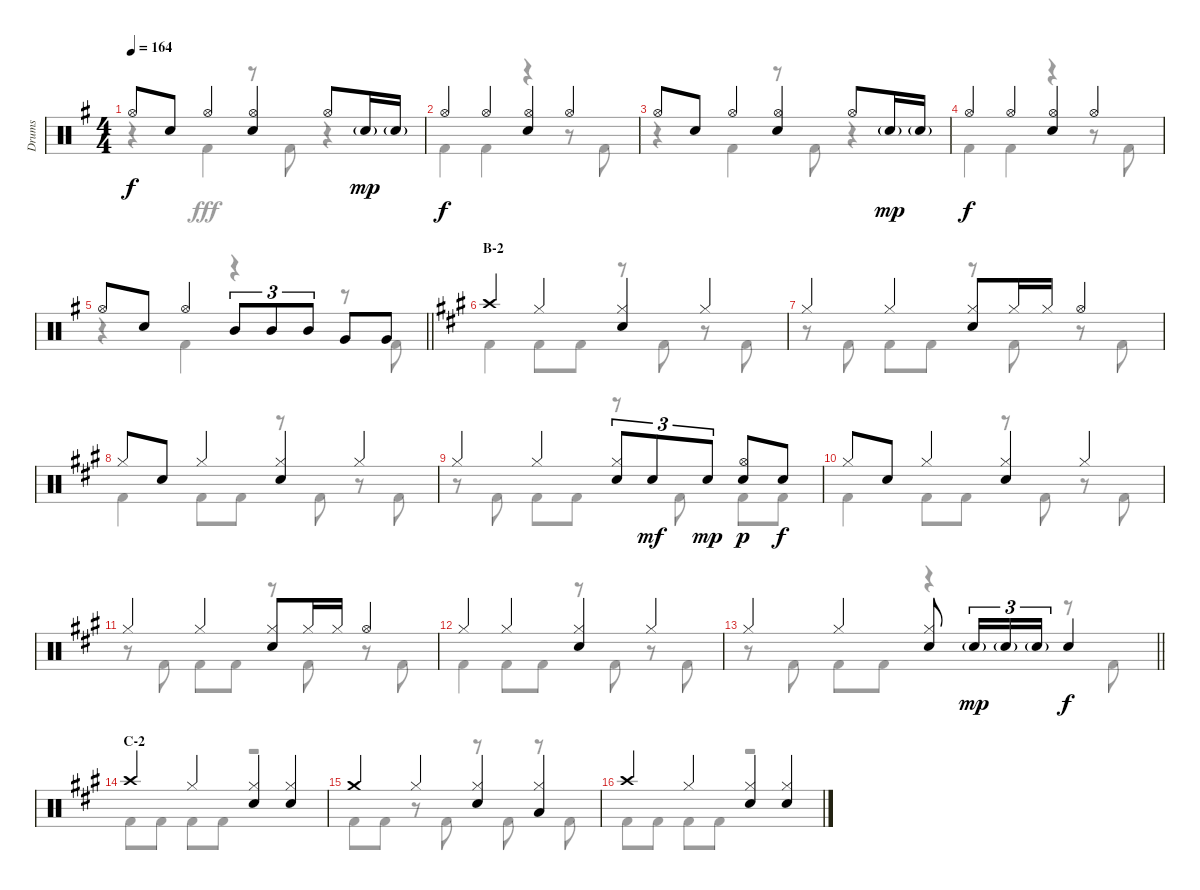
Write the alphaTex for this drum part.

\track ("Drums" "Drums") {instrument percussion}
\staff {score}
\articulation defaults
\voice
\ts (4 4)
\tempo 164
\clef neutral
\ks g "Hi-Hat (open)".8{dy f} "Snare (hit) 2".8 "Hi-Hat (open)".4
("Hi-Hat (open)" "Snare (hit) 2").4 "Hi-Hat (open)".8 "Snare (hit) 2"{g}.16{dy mp} "Snare (hit) 2"{g}.16 |
"Hi-Hat (open)".4{dy f} "Hi-Hat (open)".4 ("Hi-Hat (open)" "Snare (hit) 2").4 "Hi-Hat (open)".4 |
"Hi-Hat (open)".8 "Snare (hit) 2".8 "Hi-Hat (open)".4 ("Hi-Hat (open)" "Snare (hit) 2").4 "Hi-Hat (open)".8 "Snare (hit) 2"{g}.16{dy mp} "Snare (hit) 2"{g}.16 |
"Hi-Hat (open)".4{dy f} "Hi-Hat (open)".4 ("Hi-Hat (open)" "Snare (hit) 2").4 "Hi-Hat (open)".4 |
\barLineRight lightlight "Hi-Hat (open)".8 "Snare (hit) 2".8 "Hi-Hat (open)".4 "Mid Tom (hit)".8{tu (3 2)} "Mid Tom (hit)".8{tu (3 2)} "Mid Tom (hit)".8{tu (3 2)} "Very Low Tom (hit)".8 "Very Low Tom (hit)".8
|
\section ("" "B-2")
\ks a "Crash high (hit)".4 "Hi-Hat (closed)".4
("Hi-Hat (closed)" "Snare (hit) 2").4 "Hi-Hat (closed)".4 |
"Hi-Hat (closed)".4 "Hi-Hat (closed)".4 ("Hi-Hat (closed)" "Snare (hit) 2").8 "Hi-Hat (closed)".16 "Hi-Hat (closed)".16 "Hi-Hat (open)".4 |
"Hi-Hat (closed)".8 "Snare (hit) 2".8 "Hi-Hat (closed)".4 ("Hi-Hat (closed)" "Snare (hit) 2").4 "Hi-Hat (closed)".4 |
"Hi-Hat (closed)".4 "Hi-Hat (closed)".4 ("Hi-Hat (closed)" "Snare (hit) 2").8{tu (3 2)} "Snare (hit) 2".8{tu (3 2) dy mf} "Snare (hit) 2".8{tu (3 2) dy mp} ("Hi-Hat (open)" "Snare (hit) 2").8{dy p} "Snare (hit) 2".8{dy f} |
"Hi-Hat (closed)".8 "Snare (hit) 2".8 "Hi-Hat (closed)".4 ("Hi-Hat (closed)" "Snare (hit) 2").4 "Hi-Hat (closed)".4 |
"Hi-Hat (closed)".4 "Hi-Hat (closed)".4 ("Hi-Hat (closed)" "Snare (hit) 2").8 "Hi-Hat (closed)".16 "Hi-Hat (closed)".16 "Hi-Hat (open)".4 |
"Hi-Hat (closed)".4 "Hi-Hat (closed)".4 ("Hi-Hat (closed)" "Snare (hit) 2").4 "Hi-Hat (closed)".4 |
\barLineRight lightlight "Hi-Hat (closed)".4 "Hi-Hat (closed)".4
("Hi-Hat (closed)" "Snare (hit) 2").8 "Snare (hit) 2"{g}.16{tu (3 2) dy mp} "Snare (hit) 2"{g}.16{tu (3 2)} "Snare (hit) 2"{g}.16{tu (3 2)} "Snare (hit) 2".4{dy f} |
\section ("" "C-2")
"Crash high (hit)".4 "Hi-Hat (closed)".4 ("Hi-Hat (closed)" "Snare (hit) 2").4 ("Hi-Hat (closed)" "Snare (hit) 2").4 |
"Crash medium (hit)".4 "Hi-Hat (closed)".4 ("Hi-Hat (closed)" "Snare (hit) 2").4 ("Hi-Hat (closed)" "Low Tom (hit)").4 |
"Crash high (hit)".4 "Hi-Hat (closed)".4 ("Hi-Hat (closed)" "Snare (hit) 2").4 ("Hi-Hat (closed)" "Snare (hit) 2").4
\voice
\clef neutral
\ottava regular
\simile none
\ks g
r.4{dy fff} "Kick (hit) 2".4 r.8 "Kick (hit) 2".8 r.4 |
"Kick (hit) 2".4 "Kick (hit) 2".4 r.4 r.8 "Kick (hit) 2".8 |
r.4 "Kick (hit) 2".4 r.8 "Kick (hit) 2".8 r.4 |
"Kick (hit) 2".4 "Kick (hit) 2".4 r.4 r.8 "Kick (hit) 2".8 |
\barLineRight lightlight
r.4 "Kick (hit) 2".4 r.4 r.8 "Kick (hit) 2".8 |
\ks a "Kick (hit) 2".4 "Kick (hit) 2".8 "Kick (hit) 2".8
r.8 "Kick (hit) 2".8 r.8 "Kick (hit) 2".8 |
r.8 "Kick (hit) 2".8 "Kick (hit) 2".8 "Kick (hit) 2".8 r.8 "Kick (hit) 2".8 r.8 "Kick (hit) 2".8 |
"Kick (hit) 2".4 "Kick (hit) 2".8 "Kick (hit) 2".8 r.8 "Kick (hit) 2".8 r.8 "Kick (hit) 2".8 |
r.8 "Kick (hit) 2".8 "Kick (hit) 2".8 "Kick (hit) 2".8 r.8 "Kick (hit) 2".8 "Kick (hit) 2".8 "Kick (hit) 2".8 |
"Kick (hit) 2".4 "Kick (hit) 2".8 "Kick (hit) 2".8 r.8 "Kick (hit) 2".8 r.8 "Kick (hit) 2".8 |
r.8 "Kick (hit) 2".8 "Kick (hit) 2".8 "Kick (hit) 2".8 r.8 "Kick (hit) 2".8 r.8 "Kick (hit) 2".8 |
"Kick (hit) 2".4 "Kick (hit) 2".8 "Kick (hit) 2".8 r.8 "Kick (hit) 2".8 r.8 "Kick (hit) 2".8 |
\barLineRight lightlight
r.8 "Kick (hit) 2".8 "Kick (hit) 2".8 "Kick (hit) 2".8 r.4 r.8 "Kick (hit) 2".8 |
"Kick (hit) 2".8 "Kick (hit) 2".8 "Kick (hit) 2".8 "Kick (hit) 2".8 r.2 |
"Kick (hit) 2".8 "Kick (hit) 2".8 r.8 "Kick (hit) 2".8 r.8 "Kick (hit) 2".8 r.8 "Kick (hit) 2".8 |
"Kick (hit) 2".8 "Kick (hit) 2".8 "Kick (hit) 2".8 "Kick (hit) 2".8 r.2
